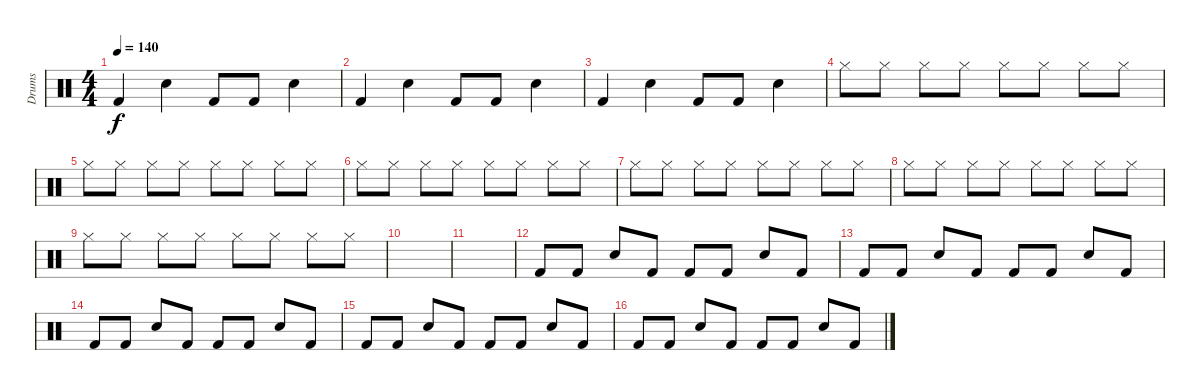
\track ("Drums" "Drums") {instrument percussion}
\staff {score}
\articulation defaults
\ts (4 4)
\tempo 140
\clef neutral
\ks c "Kick (hit) 2".4{dy f} "Snare (hit) 2".4 "Kick (hit) 2".8 "Kick (hit) 2".8 "Snare (hit) 2".4
|
"Kick (hit) 2".4 "Snare (hit) 2".4 "Kick (hit) 2".8 "Kick (hit) 2".8 "Snare (hit) 2".4 |
"Kick (hit) 2".4 "Snare (hit) 2".4 "Kick (hit) 2".8 "Kick (hit) 2".8 "Snare (hit) 2".4 |
"Hi-Hat (closed)".8 "Hi-Hat (closed)".8 "Hi-Hat (closed)".8 "Hi-Hat (closed)".8 "Hi-Hat (closed)".8 "Hi-Hat (closed)".8 "Hi-Hat (closed)".8 "Hi-Hat (closed)".8 |
"Hi-Hat (closed)".8 "Hi-Hat (closed)".8 "Hi-Hat (closed)".8 "Hi-Hat (closed)".8 "Hi-Hat (closed)".8 "Hi-Hat (closed)".8 "Hi-Hat (closed)".8 "Hi-Hat (closed)".8 |
"Hi-Hat (closed)".8 "Hi-Hat (closed)".8 "Hi-Hat (closed)".8 "Hi-Hat (closed)".8 "Hi-Hat (closed)".8 "Hi-Hat (closed)".8 "Hi-Hat (closed)".8 "Hi-Hat (closed)".8 |
"Hi-Hat (closed)".8 "Hi-Hat (closed)".8 "Hi-Hat (closed)".8 "Hi-Hat (closed)".8 "Hi-Hat (closed)".8 "Hi-Hat (closed)".8 "Hi-Hat (closed)".8 "Hi-Hat (closed)".8 |
"Hi-Hat (closed)".8 "Hi-Hat (closed)".8 "Hi-Hat (closed)".8 "Hi-Hat (closed)".8 "Hi-Hat (closed)".8 "Hi-Hat (closed)".8 "Hi-Hat (closed)".8 "Hi-Hat (closed)".8 |
"Hi-Hat (closed)".8 "Hi-Hat (closed)".8 "Hi-Hat (closed)".8 "Hi-Hat (closed)".8 "Hi-Hat (closed)".8 "Hi-Hat (closed)".8 "Hi-Hat (closed)".8 "Hi-Hat (closed)".8 |
|
|
"Kick (hit) 2".8 "Kick (hit) 2".8 "Snare (hit) 2".8 "Kick (hit) 2".8 "Kick (hit) 2".8 "Kick (hit) 2".8 "Snare (hit) 2".8 "Kick (hit) 2".8 |
"Kick (hit) 2".8 "Kick (hit) 2".8 "Snare (hit) 2".8 "Kick (hit) 2".8 "Kick (hit) 2".8 "Kick (hit) 2".8 "Snare (hit) 2".8 "Kick (hit) 2".8 |
"Kick (hit) 2".8 "Kick (hit) 2".8 "Snare (hit) 2".8 "Kick (hit) 2".8 "Kick (hit) 2".8 "Kick (hit) 2".8 "Snare (hit) 2".8 "Kick (hit) 2".8 |
"Kick (hit) 2".8 "Kick (hit) 2".8 "Snare (hit) 2".8 "Kick (hit) 2".8 "Kick (hit) 2".8 "Kick (hit) 2".8 "Snare (hit) 2".8 "Kick (hit) 2".8 |
"Kick (hit) 2".8 "Kick (hit) 2".8 "Snare (hit) 2".8 "Kick (hit) 2".8 "Kick (hit) 2".8 "Kick (hit) 2".8 "Snare (hit) 2".8 "Kick (hit) 2".8
